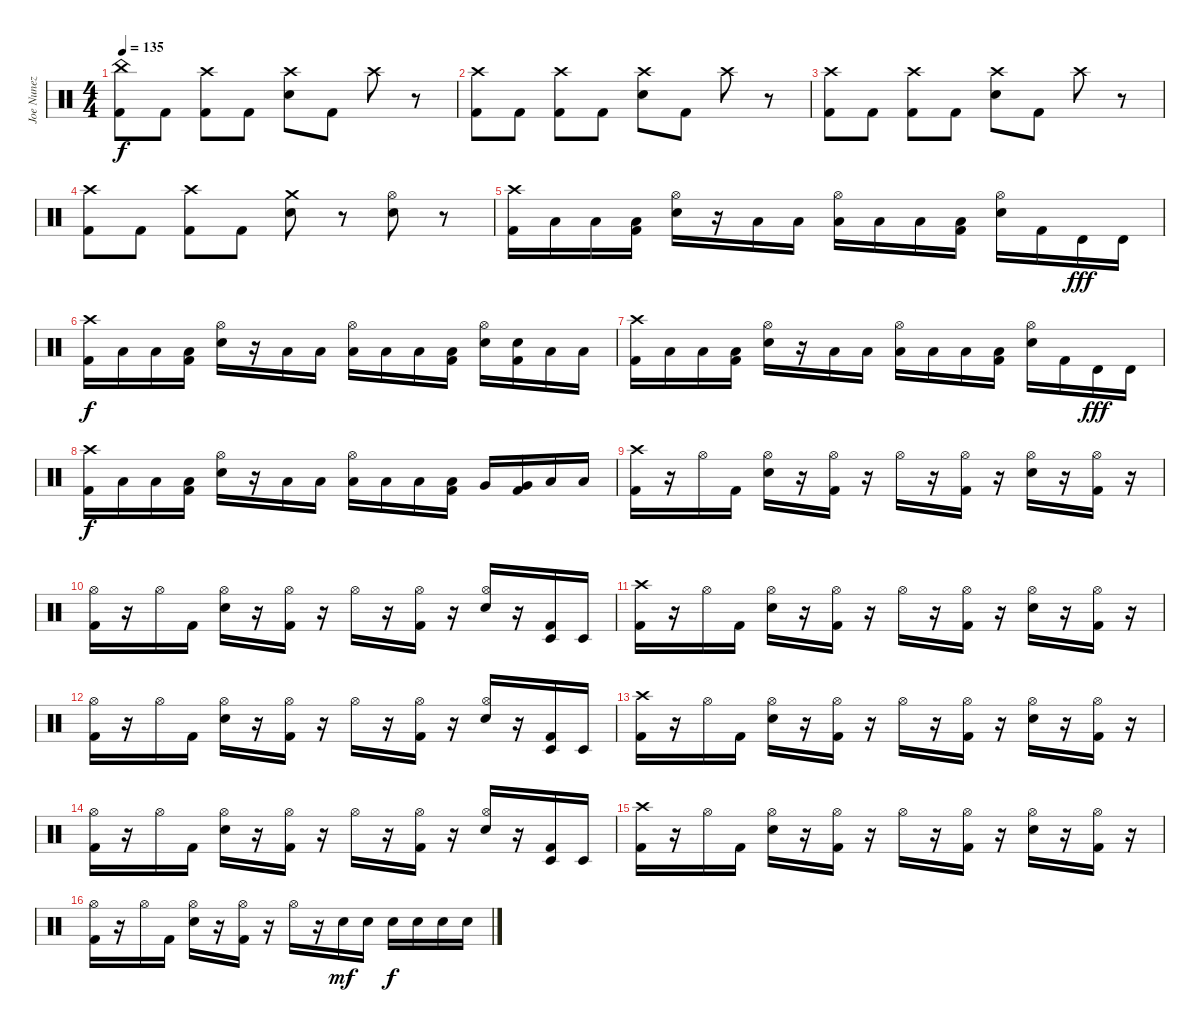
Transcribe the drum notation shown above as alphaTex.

\track ("Joe Nunez" "Joe Nunez") {instrument percussion}
\staff {score}
\articulation defaults
\ts (4 4)
\tempo 135
\clef neutral
\ks c
("China (hit)" "Kick (hit) 2").8{dy f} "Kick (hit) 2".8 ("Crash high (hit)" "Kick (hit) 2").8 "Kick (hit) 2".8 ("Crash high (hit)" "Electric Snare (hit)").8 "Kick (hit) 2".8 "Crash high (hit)".8 r.8 |
("Crash high (hit)" "Kick (hit) 2").8 "Kick (hit) 2".8 ("Crash high (hit)" "Kick (hit) 2").8 "Kick (hit) 2".8 ("Crash high (hit)" "Electric Snare (hit)").8 "Kick (hit) 2".8 "Crash high (hit)".8 r.8 |
("Crash high (hit)" "Kick (hit) 2").8 "Kick (hit) 2".8 ("Crash high (hit)" "Kick (hit) 2").8 "Kick (hit) 2".8 ("Crash high (hit)" "Electric Snare (hit)").8 "Kick (hit) 2".8 "Crash high (hit)".8 r.8 |
("Crash high (hit)" "Kick (hit) 2").8 "Kick (hit) 2".8 ("Crash high (hit)" "Kick (hit) 2").8 "Kick (hit) 2".8 ("Crash medium (hit)" "Electric Snare (hit)").8 r.8 ("Hi-Hat (open)" "Electric Snare (hit)").8 r.8 |
("Crash high (hit)" "Kick (hit) 2").16 "Low Tom (hit)".16 "Low Tom (hit)".16 ("Low Tom (hit)" "Kick (hit) 2").16 ("Hi-Hat (open)" "Electric Snare (hit)").16 r.16 "Low Tom (hit)".16 "Low Tom (hit)".16 ("Hi-Hat (open)" "Low Tom (hit)").16 "Low Tom (hit)".16 "Low Tom (hit)".16 ("Low Tom (hit)" "Kick (hit) 2").16 ("Hi-Hat (open)" "Electric Snare (hit)").16 "Kick (hit) 2".16 "Timbale high (hit)".16{dy fff} "Timbale high (hit)".16 |
("Crash high (hit)" "Kick (hit) 2").16{dy f} "Low Tom (hit)".16 "Low Tom (hit)".16 ("Low Tom (hit)" "Kick (hit) 2").16 ("Hi-Hat (open)" "Electric Snare (hit)").16 r.16 "Low Tom (hit)".16 "Low Tom (hit)".16 ("Hi-Hat (open)" "Low Tom (hit)").16 "Low Tom (hit)".16 "Low Tom (hit)".16 ("Low Tom (hit)" "Kick (hit) 2").16 ("Hi-Hat (open)" "Electric Snare (hit)").16 ("Electric Snare (hit)" "Kick (hit) 2").16 "Low Tom (hit)".16 "Low Tom (hit)".16 |
("Crash high (hit)" "Kick (hit) 2").16 "Low Tom (hit)".16 "Low Tom (hit)".16 ("Low Tom (hit)" "Kick (hit) 2").16 ("Hi-Hat (open)" "Electric Snare (hit)").16 r.16 "Low Tom (hit)".16 "Low Tom (hit)".16 ("Hi-Hat (open)" "Low Tom (hit)").16 "Low Tom (hit)".16 "Low Tom (hit)".16 ("Low Tom (hit)" "Kick (hit) 2").16 ("Hi-Hat (open)" "Electric Snare (hit)").16 "Kick (hit) 2".16 "Timbale high (hit)".16{dy fff} "Timbale high (hit)".16 |
("Crash high (hit)" "Kick (hit) 2").16{dy f} "Low Tom (hit)".16 "Low Tom (hit)".16 ("Low Tom (hit)" "Kick (hit) 2").16 ("Hi-Hat (open)" "Electric Snare (hit)").16 r.16 "Low Tom (hit)".16 "Low Tom (hit)".16 ("Hi-Hat (open)" "Low Tom (hit)").16 "Low Tom (hit)".16 "Low Tom (hit)".16 ("Low Tom (hit)" "Kick (hit) 2").16 "Very Low Tom (hit)".16 ("Very Low Tom (hit)" "Kick (hit) 2").16 "Low Floor Tom (hit)".16 "Low Floor Tom (hit)".16 |
("Crash high (hit)" "Kick (hit) 2").16 r.16 "Hi-Hat (open)".16 "Kick (hit) 2".16 ("Hi-Hat (open)" "Electric Snare (hit)").16 r.16 ("Hi-Hat (open)" "Kick (hit) 2").16 r.16 "Hi-Hat (open)".16 r.16 ("Hi-Hat (open)" "Kick (hit) 2").16 r.16 ("Hi-Hat (open)" "Electric Snare (hit)").16 r.16 ("Hi-Hat (open)" "Kick (hit) 2").16 r.16 |
("Hi-Hat (open)" "Kick (hit) 2").16 r.16 "Hi-Hat (open)".16 "Kick (hit) 2".16 ("Hi-Hat (open)" "Electric Snare (hit)").16 r.16 ("Hi-Hat (open)" "Kick (hit) 2").16 r.16 "Hi-Hat (open)".16 r.16 ("Hi-Hat (open)" "Kick (hit) 2").16 r.16 ("Hi-Hat (open)" "Electric Snare (hit)").16 r.16 ("Timbale low (hit)" "Kick (hit) 2").16 "Timbale low (hit)".16 |
("Crash high (hit)" "Kick (hit) 2").16 r.16 "Hi-Hat (open)".16 "Kick (hit) 2".16 ("Hi-Hat (open)" "Electric Snare (hit)").16 r.16 ("Hi-Hat (open)" "Kick (hit) 2").16 r.16 "Hi-Hat (open)".16 r.16 ("Hi-Hat (open)" "Kick (hit) 2").16 r.16 ("Hi-Hat (open)" "Electric Snare (hit)").16 r.16 ("Hi-Hat (open)" "Kick (hit) 2").16 r.16 |
("Hi-Hat (open)" "Kick (hit) 2").16 r.16 "Hi-Hat (open)".16 "Kick (hit) 2".16 ("Hi-Hat (open)" "Electric Snare (hit)").16 r.16 ("Hi-Hat (open)" "Kick (hit) 2").16 r.16 "Hi-Hat (open)".16 r.16 ("Hi-Hat (open)" "Kick (hit) 2").16 r.16 ("Hi-Hat (open)" "Electric Snare (hit)").16 r.16 ("Timbale low (hit)" "Kick (hit) 2").16 "Timbale low (hit)".16 |
("Crash high (hit)" "Kick (hit) 2").16 r.16 "Hi-Hat (open)".16 "Kick (hit) 2".16 ("Hi-Hat (open)" "Electric Snare (hit)").16 r.16 ("Hi-Hat (open)" "Kick (hit) 2").16 r.16 "Hi-Hat (open)".16 r.16 ("Hi-Hat (open)" "Kick (hit) 2").16 r.16 ("Hi-Hat (open)" "Electric Snare (hit)").16 r.16 ("Hi-Hat (open)" "Kick (hit) 2").16 r.16 |
("Hi-Hat (open)" "Kick (hit) 2").16 r.16 "Hi-Hat (open)".16 "Kick (hit) 2".16 ("Hi-Hat (open)" "Electric Snare (hit)").16 r.16 ("Hi-Hat (open)" "Kick (hit) 2").16 r.16 "Hi-Hat (open)".16 r.16 ("Hi-Hat (open)" "Kick (hit) 2").16 r.16 ("Hi-Hat (open)" "Electric Snare (hit)").16 r.16 ("Timbale low (hit)" "Kick (hit) 2").16 "Timbale low (hit)".16 |
("Crash high (hit)" "Kick (hit) 2").16 r.16 "Hi-Hat (open)".16 "Kick (hit) 2".16 ("Hi-Hat (open)" "Electric Snare (hit)").16 r.16 ("Hi-Hat (open)" "Kick (hit) 2").16 r.16 "Hi-Hat (open)".16 r.16 ("Hi-Hat (open)" "Kick (hit) 2").16 r.16 ("Hi-Hat (open)" "Electric Snare (hit)").16 r.16 ("Hi-Hat (open)" "Kick (hit) 2").16 r.16 |
("Hi-Hat (open)" "Kick (hit) 2").16 r.16 "Hi-Hat (open)".16 "Kick (hit) 2".16 ("Hi-Hat (open)" "Electric Snare (hit)").16 r.16 ("Hi-Hat (open)" "Kick (hit) 2").16 r.16 "Hi-Hat (open)".16 r.16 "Electric Snare (hit)".16{dy mf} "Electric Snare (hit)".16 "Electric Snare (hit)".16{dy f} "Electric Snare (hit)".16 "Electric Snare (hit)".16 "Electric Snare (hit)".16
